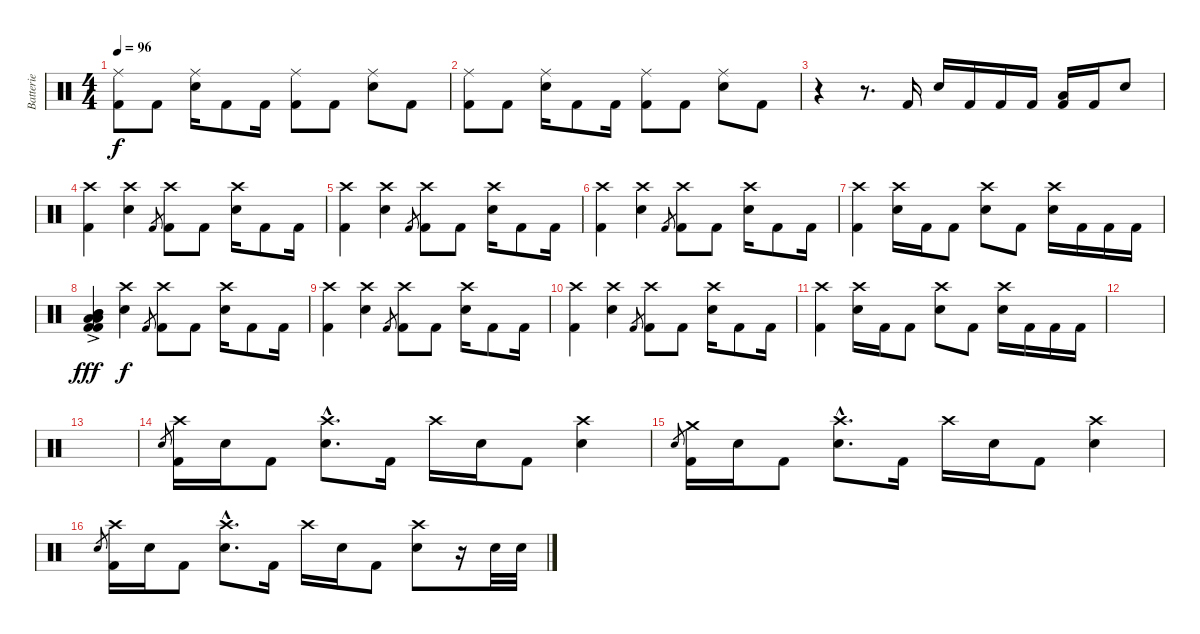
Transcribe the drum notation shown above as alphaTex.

\track ("Batterie" "Batterie") {instrument percussion}
\staff {score}
\articulation defaults
\ts (4 4)
\tempo 96
\clef neutral
\ks c
("Ride (middle)" "Kick (hit) 2").8{dy f} "Kick (hit) 2".8 ("Ride (middle)" "Electric Snare (hit)").16 "Kick (hit) 2".8 "Kick (hit) 2".16 ("Ride (middle)" "Kick (hit) 2").8 "Kick (hit) 2".8 ("Ride (middle)" "Electric Snare (hit)").8 "Kick (hit) 2".8 |
("Ride (middle)" "Kick (hit) 2").8 "Kick (hit) 2".8 ("Ride (middle)" "Electric Snare (hit)").16 "Kick (hit) 2".8 "Kick (hit) 2".16 ("Ride (middle)" "Kick (hit) 2").8 "Kick (hit) 2".8 ("Ride (middle)" "Electric Snare (hit)").8 "Kick (hit) 2".8 |
r.4 r.8{d} "Kick (hit) 2".16 "Snare (hit) 2".16 "Kick (hit) 2".16 "Kick (hit) 2".16 "Kick (hit) 2".16 ("Low Tom (hit)" "Kick (hit) 2").16 "Kick (hit) 2".16 "Snare (hit) 2".8 |
("Crash high (hit)" "Kick (hit) 2").4 ("Crash high (hit)" "Snare (hit) 2").4 "Kick (hit) 2".8{gr} ("Crash high (hit)" "Kick (hit) 2").8 "Kick (hit) 2".8 ("Crash high (hit)" "Snare (hit) 2").16 "Kick (hit) 2".8 "Kick (hit) 2".16 |
("Crash high (hit)" "Kick (hit) 2").4 ("Crash high (hit)" "Snare (hit) 2").4 "Kick (hit) 2".8{gr} ("Crash high (hit)" "Kick (hit) 2").8 "Kick (hit) 2".8 ("Crash high (hit)" "Snare (hit) 2").16 "Kick (hit) 2".8 "Kick (hit) 2".16 |
("Crash high (hit)" "Kick (hit) 2").4 ("Crash high (hit)" "Snare (hit) 2").4 "Kick (hit) 2".8{gr} ("Crash high (hit)" "Kick (hit) 2").8 "Kick (hit) 2".8 ("Crash high (hit)" "Snare (hit) 2").16 "Kick (hit) 2".8 "Kick (hit) 2".16 |
("Crash high (hit)" "Kick (hit) 2").4 ("Crash high (hit)" "Snare (hit) 2").16 "Kick (hit) 2".16 "Kick (hit) 2".8 ("Crash high (hit)" "Snare (hit) 2").8 "Kick (hit) 2".8 ("Crash high (hit)" "Snare (hit) 2").16 "Kick (hit) 2".16 "Kick (hit) 2".16 "Kick (hit) 2".16 |
("Mid Tom (hit)" "Low Tom (hit)" "Kick (hit) 2" "Mid Tom (hit)"{ac} "Low Tom (hit)"{ac} "Kick (hit) 2").4{dy fff} ("Crash high (hit)" "Snare (hit) 2").4{dy f} "Kick (hit) 2".8{gr} ("Crash high (hit)" "Kick (hit) 2").8 "Kick (hit) 2".8 ("Crash high (hit)" "Snare (hit) 2").16 "Kick (hit) 2".8 "Kick (hit) 2".16 |
("Crash high (hit)" "Kick (hit) 2").4 ("Crash high (hit)" "Snare (hit) 2").4 "Kick (hit) 2".8{gr} ("Crash high (hit)" "Kick (hit) 2").8 "Kick (hit) 2".8 ("Crash high (hit)" "Snare (hit) 2").16 "Kick (hit) 2".8 "Kick (hit) 2".16 |
("Crash high (hit)" "Kick (hit) 2").4 ("Crash high (hit)" "Snare (hit) 2").4 "Kick (hit) 2".8{gr} ("Crash high (hit)" "Kick (hit) 2").8 "Kick (hit) 2".8 ("Crash high (hit)" "Snare (hit) 2").16 "Kick (hit) 2".8 "Kick (hit) 2".16 |
("Crash high (hit)" "Kick (hit) 2").4 ("Crash high (hit)" "Snare (hit) 2").16 "Kick (hit) 2".16 "Kick (hit) 2".8 ("Crash high (hit)" "Snare (hit) 2").8 "Kick (hit) 2".8 ("Crash high (hit)" "Snare (hit) 2").16 "Kick (hit) 2".16 "Kick (hit) 2".16 "Kick (hit) 2".16 |
|
|
"Snare (hit) 2".8{gr} ("Crash high (hit)" "Kick (hit) 2").16 "Snare (hit) 2".16 "Kick (hit) 2".8 ("Crash high (hit)"{hac} "Snare (hit) 2"{hac}).8{d} "Kick (hit) 2".16 "Crash high (hit)".16 "Snare (hit) 2".16 "Kick (hit) 2".8 ("Crash high (hit)" "Snare (hit) 2").4 |
"Snare (hit) 2".8{gr} ("Crash medium (hit)" "Kick (hit) 2").16 "Snare (hit) 2".16 "Kick (hit) 2".8 ("Crash high (hit)"{hac} "Snare (hit) 2"{hac}).8{d} "Kick (hit) 2".16 "Crash high (hit)".16 "Snare (hit) 2".16 "Kick (hit) 2".8 ("Crash high (hit)" "Snare (hit) 2").4 |
"Snare (hit) 2".8{gr} ("Crash high (hit)" "Kick (hit) 2").16 "Snare (hit) 2".16 "Kick (hit) 2".8 ("Crash high (hit)"{hac} "Snare (hit) 2"{hac}).8{d} "Kick (hit) 2".16 "Crash high (hit)".16 "Snare (hit) 2".16 "Kick (hit) 2".8 ("Crash high (hit)" "Snare (hit) 2").8 r.16 "Snare (hit) 2".32 "Snare (hit) 2".32
